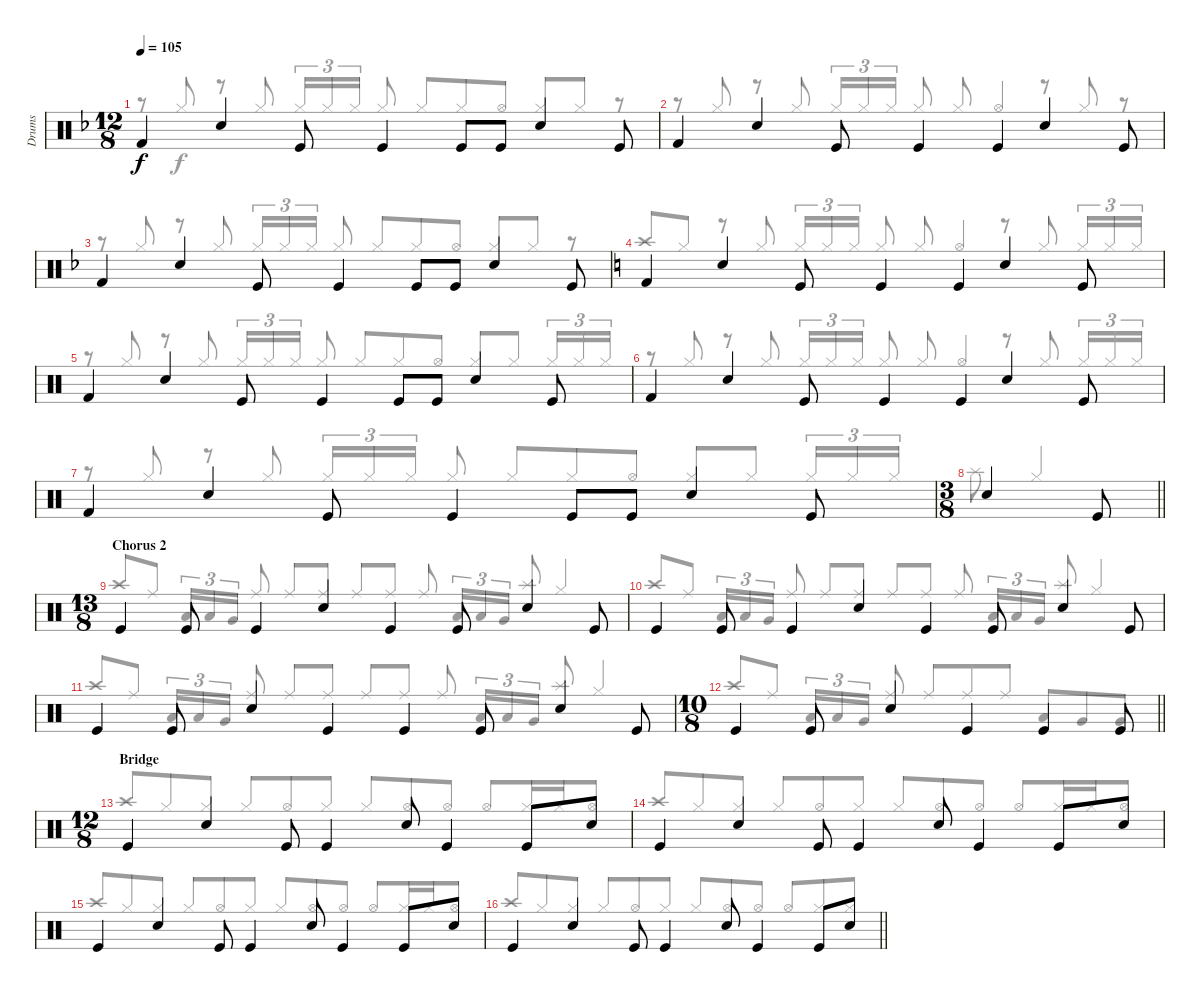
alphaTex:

\track ("Drums" "Drums") {instrument percussion}
\staff {score}
\articulation defaults
\voice
\ts (12 8)
\tempo 105
\clef neutral
\ks dminor "Kick (hit) 2".4{dy f} "Snare (hit) 2".4 "Kick (hit)".8 "Kick (hit)".4 "Kick (hit)".8 "Kick (hit)".8 "Snare (hit) 2".4 "Kick (hit)".8
|
"Kick (hit) 2".4 "Snare (hit) 2".4 "Kick (hit)".8 "Kick (hit)".4 "Kick (hit)".4 "Snare (hit) 2".4 "Kick (hit)".8 |
"Kick (hit) 2".4 "Snare (hit) 2".4 "Kick (hit)".8 "Kick (hit)".4 "Kick (hit)".8 "Kick (hit)".8 "Snare (hit) 2".4 "Kick (hit)".8 |
\ks aminor "Kick (hit) 2".4 "Snare (hit) 2".4 "Kick (hit)".8 "Kick (hit)".4 "Kick (hit)".4 "Snare (hit) 2".4 "Kick (hit)".8
|
"Kick (hit) 2".4 "Snare (hit) 2".4 "Kick (hit)".8 "Kick (hit)".4 "Kick (hit)".8 "Kick (hit)".8 "Snare (hit) 2".4 "Kick (hit)".8 |
"Kick (hit) 2".4{volume 12} "Snare (hit) 2".4 "Kick (hit)".8 "Kick (hit)".4 "Kick (hit)".4 "Snare (hit) 2".4 "Kick (hit)".8 |
"Kick (hit) 2".4 "Snare (hit) 2".4 "Kick (hit)".8 "Kick (hit)".4 "Kick (hit)".8 "Kick (hit)".8 "Snare (hit) 2".4 "Kick (hit)".8 |
\ts (3 8)
\barLineRight lightlight "Snare (hit) 2".4 "Kick (hit)".8
|
\ts (13 8)
\section ("" "Chorus 2")
"Kick (hit)".4 "Kick (hit)".8 "Kick (hit)".4 "Snare (hit) 2".4 "Kick (hit)".4 "Kick (hit)".8 "Snare (hit) 2".4 "Kick (hit)".8 |
"Kick (hit)".4 "Kick (hit)".8 "Kick (hit)".4 "Snare (hit) 2".4 "Kick (hit)".4 "Kick (hit)".8 "Snare (hit) 2".4 "Kick (hit)".8 |
"Kick (hit)".4 "Kick (hit)".8 "Snare (hit) 2".4 "Kick (hit)".4 "Kick (hit)".4 "Kick (hit)".8 "Snare (hit) 2".4 "Kick (hit)".8 |
\ts (10 8)
\barLineRight lightlight "Kick (hit)".4 "Kick (hit)".8 "Snare (hit) 2".4 "Kick (hit)".4 "Kick (hit)".4{volume 14} "Kick (hit)".8
|
\ts (12 8)
\section ("" "Bridge")
"Kick (hit)".4 "Snare (hit) 2".4 "Kick (hit)".8 "Kick (hit)".4 "Snare (hit) 2".8 "Kick (hit)".4 "Kick (hit)".8 "Snare (hit) 2".8 |
"Kick (hit)".4 "Snare (hit) 2".4 "Kick (hit)".8 "Kick (hit)".4 "Snare (hit) 2".8 "Kick (hit)".4 "Kick (hit)".8 "Snare (hit) 2".8 |
"Kick (hit)".4 "Snare (hit) 2".4 "Kick (hit)".8 "Kick (hit)".4 "Snare (hit) 2".8 "Kick (hit)".4 "Kick (hit)".8 "Snare (hit) 2".8 |
\barLineRight lightlight "Kick (hit)".4 "Snare (hit) 2".4 "Kick (hit)".8 "Kick (hit)".4 "Snare (hit) 2".8 "Kick (hit)".4 "Kick (hit)".8 "Snare (hit) 2".8
\voice
\clef neutral
\ottava regular
\simile none
\ks dminor
r.8{dy f} "Hi-Hat (closed)".8{beam Up} r.8 "Hi-Hat (closed)".8{beam Up} "Hi-Hat (closed)".16{tu (3 2) beam Up} "Hi-Hat (closed)".16{tu (3 2) beam Up} "Hi-Hat (closed)".16{tu (3 2) beam Up} "Hi-Hat (closed)".8{beam Up} "Hi-Hat (closed)".8{beam Up} "Hi-Hat (closed)".8{beam Up} "Hi-Hat (open)".8{beam Up} "Hi-Hat (closed)".8{beam Up} "Hi-Hat (closed)".8{beam Up} r.8{beam Up} |
r.8{beam Up} "Hi-Hat (closed)".8{beam Up} r.8 "Hi-Hat (closed)".8{beam Up} "Hi-Hat (closed)".16{tu (3 2) beam Up} "Hi-Hat (closed)".16{tu (3 2) beam Up} "Hi-Hat (closed)".16{tu (3 2) beam Up} "Hi-Hat (closed)".8{beam Up} "Hi-Hat (closed)".8{beam Up} "Hi-Hat (open)".4{beam Up} r.8 "Hi-Hat (closed)".8{beam Up} r.8 |
r.8 "Hi-Hat (closed)".8{beam Up} r.8 "Hi-Hat (closed)".8{beam Up} "Hi-Hat (closed)".16{tu (3 2) beam Up} "Hi-Hat (closed)".16{tu (3 2) beam Up} "Hi-Hat (closed)".16{tu (3 2) beam Up} "Hi-Hat (closed)".8{beam Up} "Hi-Hat (closed)".8{beam Up} "Hi-Hat (closed)".8{beam Up} "Hi-Hat (open)".8{beam Up} "Hi-Hat (closed)".8{beam Up} "Hi-Hat (closed)".8{beam Up} r.8{beam Up} |
\ks aminor "Crash high (hit)".8{beam Up} "Hi-Hat (closed)".8{beam Up}
r.8 "Hi-Hat (closed)".8{beam Up} "Hi-Hat (closed)".16{tu (3 2) beam Up} "Hi-Hat (closed)".16{tu (3 2) beam Up} "Hi-Hat (closed)".16{tu (3 2) beam Up} "Hi-Hat (closed)".8{beam Up} "Hi-Hat (closed)".8{beam Up} "Hi-Hat (open)".4{beam Up} r.8 "Hi-Hat (closed)".8{beam Up} "Hi-Hat (closed)".16{tu (3 2) beam Up} "Hi-Hat (closed)".16{tu (3 2) beam Up} "Hi-Hat (closed)".16{tu (3 2) beam Up} |
r.8 "Hi-Hat (closed)".8{beam Up} r.8 "Hi-Hat (closed)".8{beam Up} "Hi-Hat (closed)".16{tu (3 2) beam Up} "Hi-Hat (closed)".16{tu (3 2) beam Up} "Hi-Hat (closed)".16{tu (3 2) beam Up} "Hi-Hat (closed)".8{beam Up} "Hi-Hat (closed)".8{beam Up} "Hi-Hat (closed)".8{beam Up} "Hi-Hat (open)".8{beam Up} "Hi-Hat (closed)".8{beam Up} "Hi-Hat (closed)".8{beam Up} "Hi-Hat (closed)".16{tu (3 2) beam Up} "Hi-Hat (closed)".16{tu (3 2) beam Up} "Hi-Hat (closed)".16{tu (3 2) beam Up} |
r.8{beam Up} "Hi-Hat (closed)".8{beam Up} r.8 "Hi-Hat (closed)".8{beam Up} "Hi-Hat (closed)".16{tu (3 2) beam Up} "Hi-Hat (closed)".16{tu (3 2) beam Up} "Hi-Hat (closed)".16{tu (3 2) beam Up} "Hi-Hat (closed)".8{beam Up} "Hi-Hat (closed)".8{beam Up} "Hi-Hat (open)".4{beam Up} r.8 "Hi-Hat (closed)".8{beam Up} "Hi-Hat (closed)".16{tu (3 2) beam Up} "Hi-Hat (closed)".16{tu (3 2) beam Up} "Hi-Hat (closed)".16{tu (3 2) beam Up} |
r.8 "Hi-Hat (closed)".8{beam Up} r.8 "Hi-Hat (closed)".8{beam Up} "Hi-Hat (closed)".16{tu (3 2) beam Up} "Hi-Hat (closed)".16{tu (3 2) beam Up} "Hi-Hat (closed)".16{tu (3 2) beam Up} "Hi-Hat (closed)".8{beam Up} "Hi-Hat (closed)".8{beam Up} "Hi-Hat (closed)".8{beam Up} "Hi-Hat (open)".8{beam Up} "Hi-Hat (closed)".8{beam Up} "Hi-Hat (closed)".8{beam Up} "Hi-Hat (closed)".16{tu (3 2) beam Up} "Hi-Hat (closed)".16{tu (3 2) beam Up} "Hi-Hat (closed)".16{tu (3 2) beam Up} |
\barLineRight lightlight "Splash (hit)".8 "Hi-Hat (closed)".4{beam Up}
|
"Crash high (hit)".8{beam Up} "Ride (middle)".8{beam Up} "Low Tom (hit)".16{tu (3 2) beam Up} "Low Tom (hit)".16{tu (3 2) beam Up} "Very Low Tom (hit)".16{tu (3 2) beam Up} "Ride (middle)".8{beam Up} "Ride (middle)".8{beam Up} "Ride (middle)".8{beam Up} "Ride (middle)".8{beam Up} "Ride (middle)".8{beam Up} "Ride (middle)".8{beam Up} "Low Tom (hit)".16{tu (3 2) beam Up} "Low Tom (hit)".16{tu (3 2) beam Up} "Very Low Tom (hit)".16{tu (3 2) beam Up} "Splash (hit)".8{beam Up} "Hi-Hat (closed)".4{beam Up} |
"Crash high (hit)".8{beam Up} "Ride (middle)".8{beam Up} "Low Tom (hit)".16{tu (3 2) beam Up} "Low Tom (hit)".16{tu (3 2) beam Up} "Very Low Tom (hit)".16{tu (3 2) beam Up} "Ride (middle)".8{beam Up} "Ride (middle)".8{beam Up} "Ride (middle)".8{beam Up} "Ride (middle)".8{beam Up} "Ride (middle)".8{beam Up} "Ride (middle)".8{beam Up} "Low Tom (hit)".16{tu (3 2) beam Up} "Low Tom (hit)".16{tu (3 2) beam Up} "Very Low Tom (hit)".16{tu (3 2) beam Up} "Splash (hit)".8{beam Up} "Hi-Hat (closed)".4{beam Up} |
"Crash high (hit)".8{beam Up} "Ride (middle)".8{beam Up} "Low Tom (hit)".16{tu (3 2) beam Up} "Low Tom (hit)".16{tu (3 2) beam Up} "Very Low Tom (hit)".16{tu (3 2) beam Up} "Ride (middle)".8{beam Up} "Ride (middle)".8{beam Up} "Ride (middle)".8{beam Up} "Ride (middle)".8{beam Up} "Ride (middle)".8{beam Up} "Ride (middle)".8{beam Up} "Low Tom (hit)".16{tu (3 2) beam Up} "Low Tom (hit)".16{tu (3 2) beam Up} "Very Low Tom (hit)".16{tu (3 2) beam Up} "Splash (hit)".8{beam Up} "Hi-Hat (closed)".4{beam Up} |
\barLineRight lightlight "Crash high (hit)".8{beam Up} "Ride (middle)".8{beam Up} "Low Tom (hit)".16{tu (3 2) beam Up} "Low Tom (hit)".16{tu (3 2) beam Up} "Very Low Tom (hit)".16{tu (3 2) beam Up} "Ride (middle)".8{beam Up} "Ride (middle)".8{beam Up} "Ride (middle)".8{beam Up} "Ride (middle)".8{beam Up} "Low Tom (hit)".8{beam Up} "Very Low Tom (hit)".8{beam Up} "Very Low Tom (hit)".8{beam Up}
|
"Crash high (hit)".8{beam Up} "Hi-Hat (closed)".8{beam Up} "Hi-Hat (closed)".8{beam Up} "Hi-Hat (closed)".8{beam Up} "Hi-Hat (open)".8{beam Up} "Hi-Hat (closed)".8{beam Up} "Hi-Hat (closed)".8{beam Up} "Hi-Hat (open)".8{beam Up} "Hi-Hat (open)".8{beam Up} "Hi-Hat (open)".8{beam Up} "Hi-Hat (closed)".16{beam Up} "Hi-Hat (closed)".16{beam Up} "Hi-Hat (open)".8{beam Up} |
"Crash high (hit)".8{beam Up} "Hi-Hat (closed)".8{beam Up} "Hi-Hat (closed)".8{beam Up} "Hi-Hat (closed)".8{beam Up} "Hi-Hat (open)".8{beam Up} "Hi-Hat (closed)".8{beam Up} "Hi-Hat (closed)".8{beam Up} "Hi-Hat (open)".8{beam Up} "Hi-Hat (open)".8{beam Up} "Hi-Hat (open)".8{beam Up} "Hi-Hat (closed)".16{beam Up} "Hi-Hat (closed)".16{beam Up} "Hi-Hat (open)".8{beam Up} |
"Crash high (hit)".8{beam Up} "Hi-Hat (closed)".8{beam Up} "Hi-Hat (closed)".8{beam Up} "Hi-Hat (closed)".8{beam Up} "Hi-Hat (open)".8{beam Up} "Hi-Hat (closed)".8{beam Up} "Hi-Hat (closed)".8{beam Up} "Hi-Hat (open)".8{beam Up} "Hi-Hat (open)".8{beam Up} "Hi-Hat (open)".8{beam Up} "Hi-Hat (closed)".16{beam Up} "Hi-Hat (closed)".16{beam Up} "Hi-Hat (open)".8{beam Up} |
\barLineRight lightlight "Crash high (hit)".8{beam Up} "Hi-Hat (closed)".8{beam Up} "Hi-Hat (closed)".8{beam Up} "Hi-Hat (closed)".8{beam Up} "Hi-Hat (open)".8{beam Up} "Hi-Hat (closed)".8{beam Up} "Hi-Hat (closed)".8{beam Up} "Hi-Hat (open)".8{beam Up} "Hi-Hat (open)".8{beam Up} "Hi-Hat (open)".8{beam Up} "Hi-Hat (closed)".8{beam Up} "Hi-Hat (closed)".8{beam Up}
